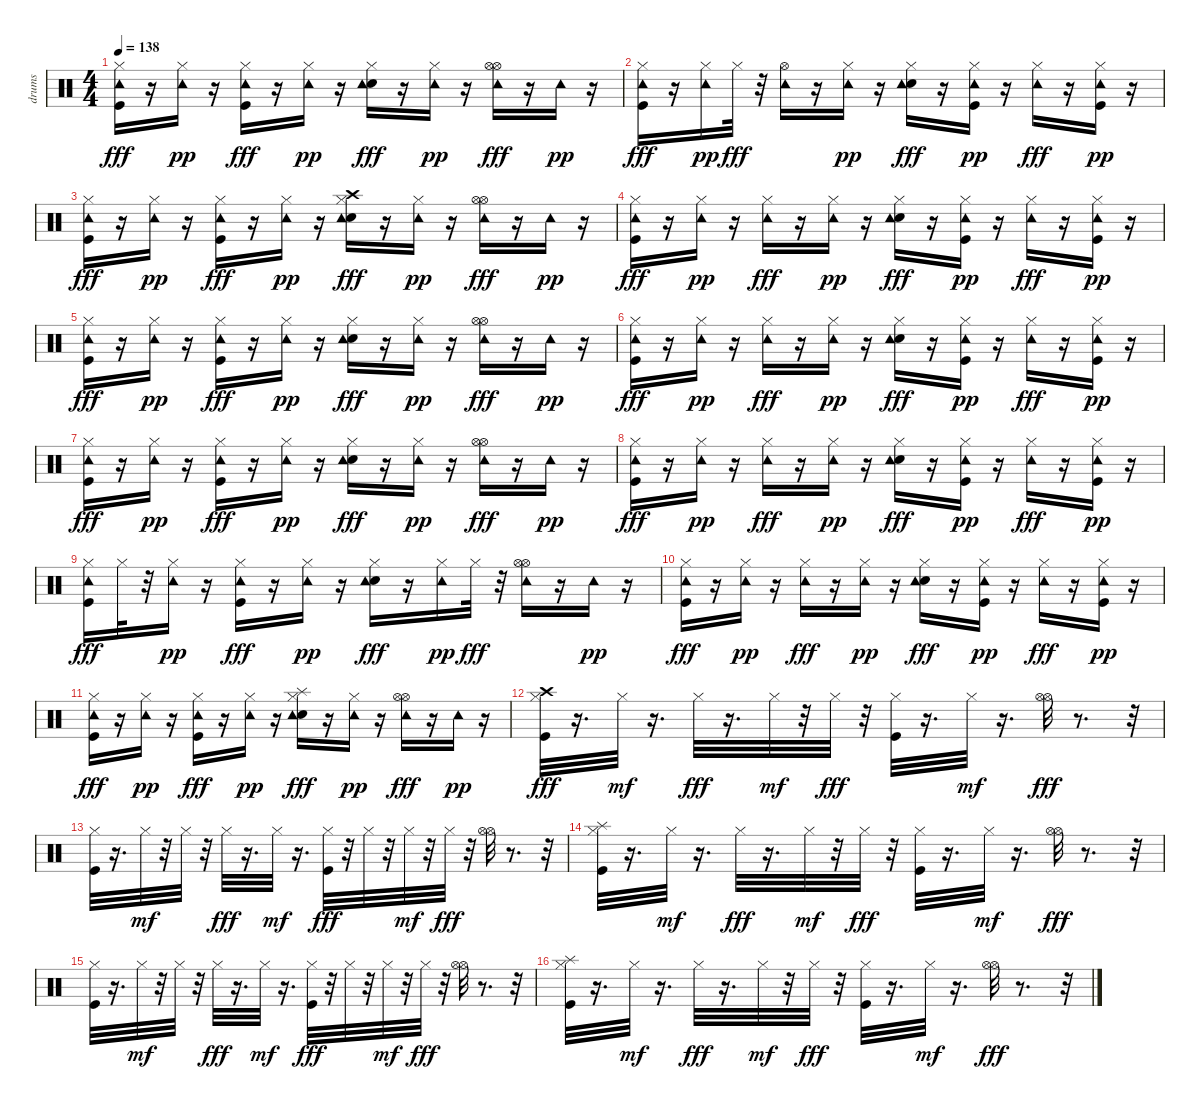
\track ("drums" "drums") {instrument percussion}
\staff {score}
\articulation defaults
\ts (4 4)
\tempo 138
\clef neutral
\ks c
("Hi-Hat (closed)" "Kick (hit)" "Tambourine (hit)").16{dy fff} r.16 ("Hi-Hat (closed)" "Tambourine (hit)").16{dy pp} r.16 ("Hi-Hat (closed)" "Kick (hit)" "Tambourine (hit)").16{dy fff} r.16 ("Hi-Hat (closed)" "Tambourine (hit)").16{dy pp} r.16 ("Metronome (bell)" "Hi-Hat (closed)" "Tambourine (hit)").16{dy fff} r.16 ("Hi-Hat (closed)" "Tambourine (hit)").16{dy pp} r.16 ("Hi-Hat (open)" "Hi-Hat (open)" "Tambourine (hit)").16{dy fff} r.16 "Tambourine (hit)".16{dy pp} r.16 |
("Hi-Hat (closed)" "Kick (hit)" "Tambourine (hit)").16{dy fff} r.16 ("Hi-Hat (closed)" "Tambourine (hit)").16{dy pp} "Hi-Hat (closed)".32{dy fff} r.32 ("Hi-Hat (open)" "Tambourine (hit)").16 r.16 ("Hi-Hat (closed)" "Tambourine (hit)").16{dy pp} r.16 ("Metronome (bell)" "Hi-Hat (closed)" "Tambourine (hit)").16{dy fff} r.16 ("Hi-Hat (closed)" "Kick (hit)" "Tambourine (hit)").16{dy pp} r.16 ("Hi-Hat (closed)" "Tambourine (hit)").16{dy fff} r.16 ("Hi-Hat (closed)" "Kick (hit)" "Tambourine (hit)").16{dy pp} r.16 |
("Hi-Hat (closed)" "Kick (hit)" "Tambourine (hit)").16{dy fff} r.16 ("Hi-Hat (closed)" "Tambourine (hit)").16{dy pp} r.16 ("Hi-Hat (closed)" "Kick (hit)" "Tambourine (hit)").16{dy fff} r.16 ("Hi-Hat (closed)" "Tambourine (hit)").16{dy pp} r.16 ("Crash high (hit)" "Metronome (bell)" "Hi-Hat (closed)" "Tambourine (hit)").16{dy fff} r.16 ("Hi-Hat (closed)" "Tambourine (hit)").16{dy pp} r.16 ("Hi-Hat (open)" "Hi-Hat (open)" "Tambourine (hit)").16{dy fff} r.16 "Tambourine (hit)".16{dy pp} r.16 |
("Hi-Hat (closed)" "Kick (hit)" "Tambourine (hit)").16{dy fff} r.16 ("Hi-Hat (closed)" "Tambourine (hit)").16{dy pp} r.16 ("Hi-Hat (closed)" "Tambourine (hit)").16{dy fff} r.16 ("Hi-Hat (closed)" "Tambourine (hit)").16{dy pp} r.16 ("Metronome (bell)" "Hi-Hat (closed)" "Tambourine (hit)").16{dy fff} r.16 ("Hi-Hat (closed)" "Kick (hit)" "Tambourine (hit)").16{dy pp} r.16 ("Hi-Hat (closed)" "Tambourine (hit)").16{dy fff} r.16 ("Hi-Hat (closed)" "Kick (hit)" "Tambourine (hit)").16{dy pp} r.16 |
("Hi-Hat (closed)" "Kick (hit)" "Tambourine (hit)").16{dy fff} r.16 ("Hi-Hat (closed)" "Tambourine (hit)").16{dy pp} r.16 ("Hi-Hat (closed)" "Kick (hit)" "Tambourine (hit)").16{dy fff} r.16 ("Hi-Hat (closed)" "Tambourine (hit)").16{dy pp} r.16 ("Metronome (bell)" "Hi-Hat (closed)" "Tambourine (hit)").16{dy fff} r.16 ("Hi-Hat (closed)" "Tambourine (hit)").16{dy pp} r.16 ("Hi-Hat (open)" "Hi-Hat (open)" "Tambourine (hit)").16{dy fff} r.16 "Tambourine (hit)".16{dy pp} r.16 |
("Hi-Hat (closed)" "Kick (hit)" "Tambourine (hit)").16{dy fff} r.16 ("Hi-Hat (closed)" "Tambourine (hit)").16{dy pp} r.16 ("Hi-Hat (closed)" "Tambourine (hit)").16{dy fff} r.16 ("Hi-Hat (closed)" "Tambourine (hit)").16{dy pp} r.16 ("Metronome (bell)" "Hi-Hat (closed)" "Tambourine (hit)").16{dy fff} r.16 ("Hi-Hat (closed)" "Kick (hit)" "Tambourine (hit)").16{dy pp} r.16 ("Hi-Hat (closed)" "Tambourine (hit)").16{dy fff} r.16 ("Hi-Hat (closed)" "Kick (hit)" "Tambourine (hit)").16{dy pp} r.16 |
("Hi-Hat (closed)" "Kick (hit)" "Tambourine (hit)").16{dy fff} r.16 ("Hi-Hat (closed)" "Tambourine (hit)").16{dy pp} r.16 ("Hi-Hat (closed)" "Kick (hit)" "Tambourine (hit)").16{dy fff} r.16 ("Hi-Hat (closed)" "Tambourine (hit)").16{dy pp} r.16 ("Metronome (bell)" "Hi-Hat (closed)" "Tambourine (hit)").16{dy fff} r.16 ("Hi-Hat (closed)" "Tambourine (hit)").16{dy pp} r.16 ("Hi-Hat (open)" "Hi-Hat (open)" "Tambourine (hit)").16{dy fff} r.16 "Tambourine (hit)".16{dy pp} r.16 |
("Hi-Hat (closed)" "Kick (hit)" "Tambourine (hit)").16{dy fff} r.16 ("Hi-Hat (closed)" "Tambourine (hit)").16{dy pp} r.16 ("Hi-Hat (closed)" "Tambourine (hit)").16{dy fff} r.16 ("Hi-Hat (closed)" "Tambourine (hit)").16{dy pp} r.16 ("Metronome (bell)" "Hi-Hat (closed)" "Tambourine (hit)").16{dy fff} r.16 ("Hi-Hat (closed)" "Kick (hit)" "Tambourine (hit)").16{dy pp} r.16 ("Hi-Hat (closed)" "Tambourine (hit)").16{dy fff} r.16 ("Hi-Hat (closed)" "Kick (hit)" "Tambourine (hit)").16{dy pp} r.16 |
("Hi-Hat (closed)" "Kick (hit)" "Tambourine (hit)").16{dy fff} "Hi-Hat (closed)".32 r.32 ("Hi-Hat (closed)" "Tambourine (hit)").16{dy pp} r.16 ("Hi-Hat (closed)" "Kick (hit)" "Tambourine (hit)").16{dy fff} r.16 ("Hi-Hat (closed)" "Tambourine (hit)").16{dy pp} r.16 ("Metronome (bell)" "Hi-Hat (closed)" "Tambourine (hit)").16{dy fff} r.16 ("Hi-Hat (closed)" "Tambourine (hit)").16{dy pp} "Hi-Hat (closed)".32{dy fff} r.32 ("Hi-Hat (open)" "Hi-Hat (open)" "Tambourine (hit)").16 r.16 "Tambourine (hit)".16{dy pp} r.16 |
("Hi-Hat (closed)" "Kick (hit)" "Tambourine (hit)").16{dy fff} r.16 ("Hi-Hat (closed)" "Tambourine (hit)").16{dy pp} r.16 ("Hi-Hat (closed)" "Tambourine (hit)").16{dy fff} r.16 ("Hi-Hat (closed)" "Tambourine (hit)").16{dy pp} r.16 ("Metronome (bell)" "Hi-Hat (closed)" "Tambourine (hit)").16{dy fff} r.16 ("Hi-Hat (closed)" "Kick (hit)" "Tambourine (hit)").16{dy pp} r.16 ("Hi-Hat (closed)" "Tambourine (hit)").16{dy fff} r.16 ("Hi-Hat (closed)" "Kick (hit)" "Tambourine (hit)").16{dy pp} r.16 |
("Hi-Hat (closed)" "Kick (hit)" "Tambourine (hit)").16{dy fff} r.16 ("Hi-Hat (closed)" "Tambourine (hit)").16{dy pp} r.16 ("Hi-Hat (closed)" "Kick (hit)" "Tambourine (hit)").16{dy fff} r.16 ("Hi-Hat (closed)" "Tambourine (hit)").16{dy pp} r.16 ("Splash (hit)" "Metronome (bell)" "Hi-Hat (closed)" "Tambourine (hit)").16{dy fff} r.16 ("Hi-Hat (closed)" "Tambourine (hit)").16{dy pp} r.16 ("Hi-Hat (open)" "Hi-Hat (open)" "Tambourine (hit)").16{dy fff} r.16 "Tambourine (hit)".16{dy pp} r.16 |
("Crash high (hit)" "Kick (hit)" "Hi-Hat (closed)").32{dy fff} r.16{d} "Hi-Hat (closed)".32{dy mf} r.16{d} "Hi-Hat (closed)".32{dy fff} r.16{d} "Hi-Hat (closed)".32{dy mf} r.32 "Hi-Hat (closed)".32{dy fff} r.32 ("Kick (hit)" "Hi-Hat (closed)").32 r.16{d} "Hi-Hat (closed)".32{dy mf} r.16{d} ("Hi-Hat (open)" "Hi-Hat (open)").32{dy fff} r.8{d} r.32 |
("Hi-Hat (closed)" "Kick (hit)").32 r.16{d} "Hi-Hat (closed)".32{dy mf} r.32 "Hi-Hat (closed)".32 r.32 "Hi-Hat (closed)".32{dy fff} r.16{d} "Hi-Hat (closed)".32{dy mf} r.16{d} ("Kick (hit)" "Hi-Hat (closed)").32{dy fff} r.32 "Hi-Hat (closed)".32 r.32 "Hi-Hat (closed)".32{dy mf} r.32 "Hi-Hat (closed)".32{dy fff} r.32 ("Hi-Hat (open)" "Hi-Hat (open)").32 r.8{d} r.32 |
("Splash (hit)" "Kick (hit)" "Hi-Hat (closed)").32 r.16{d} "Hi-Hat (closed)".32{dy mf} r.16{d} "Hi-Hat (closed)".32{dy fff} r.16{d} "Hi-Hat (closed)".32{dy mf} r.32 "Hi-Hat (closed)".32{dy fff} r.32 ("Kick (hit)" "Hi-Hat (closed)").32 r.16{d} "Hi-Hat (closed)".32{dy mf} r.16{d} ("Hi-Hat (open)" "Hi-Hat (open)").32{dy fff} r.8{d} r.32 |
("Hi-Hat (closed)" "Kick (hit)").32 r.16{d} "Hi-Hat (closed)".32{dy mf} r.32 "Hi-Hat (closed)".32 r.32 "Hi-Hat (closed)".32{dy fff} r.16{d} "Hi-Hat (closed)".32{dy mf} r.16{d} ("Kick (hit)" "Hi-Hat (closed)").32{dy fff} r.32 "Hi-Hat (closed)".32 r.32 "Hi-Hat (closed)".32{dy mf} r.32 "Hi-Hat (closed)".32{dy fff} r.32 ("Hi-Hat (open)" "Hi-Hat (open)").32 r.8{d} r.32 |
("Splash (hit)" "Kick (hit)" "Hi-Hat (closed)").32 r.16{d} "Hi-Hat (closed)".32{dy mf} r.16{d} "Hi-Hat (closed)".32{dy fff} r.16{d} "Hi-Hat (closed)".32{dy mf} r.32 "Hi-Hat (closed)".32{dy fff} r.32 ("Kick (hit)" "Hi-Hat (closed)").32 r.16{d} "Hi-Hat (closed)".32{dy mf} r.16{d} ("Hi-Hat (open)" "Hi-Hat (open)").32{dy fff} r.8{d} r.32
